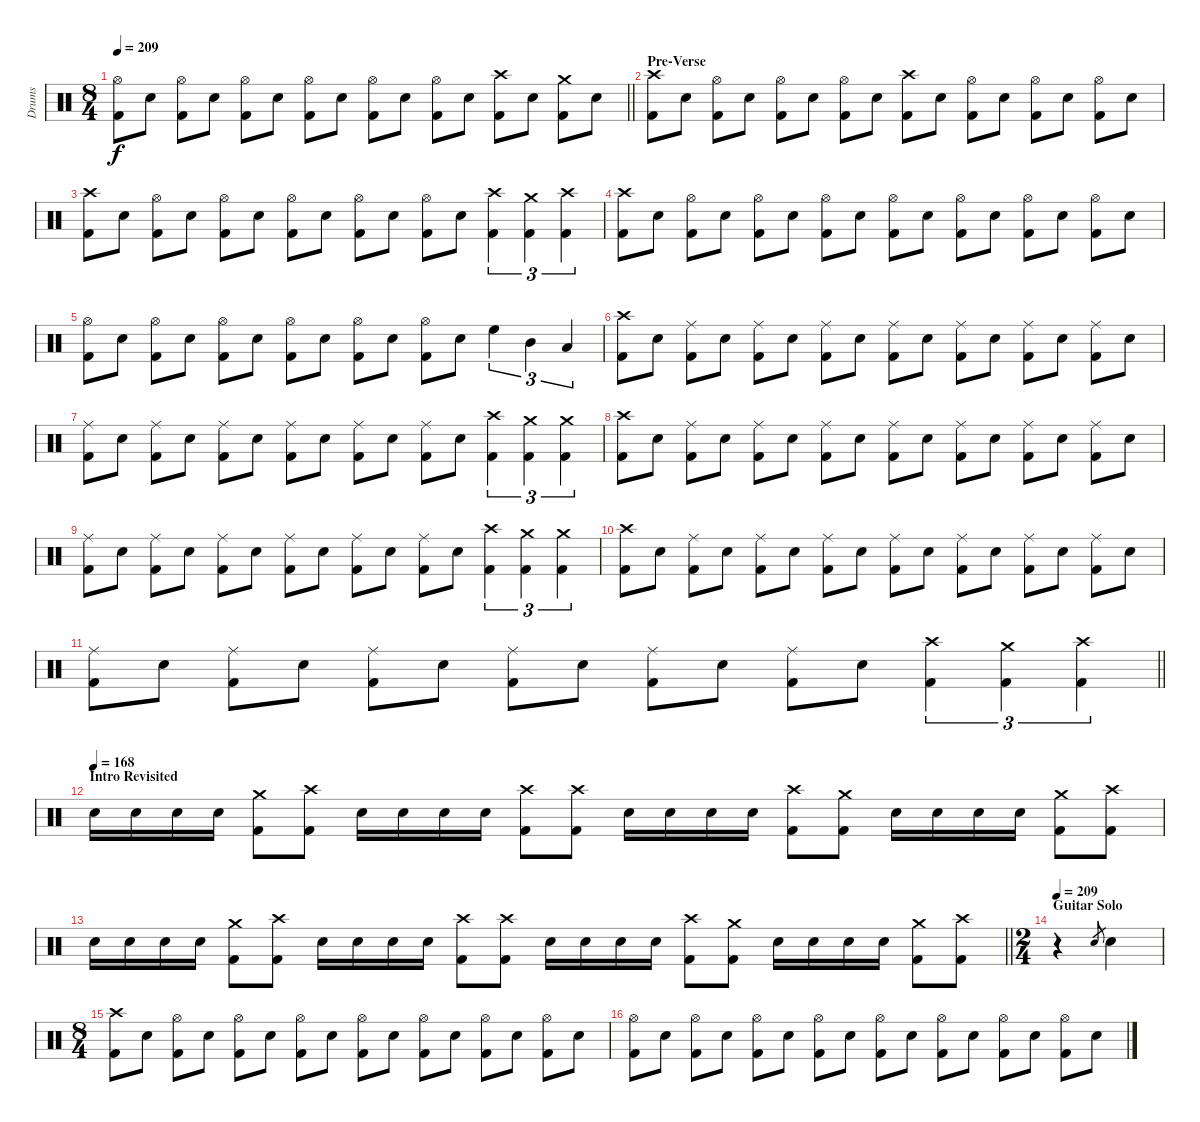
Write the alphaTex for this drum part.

\track ("Drums" "Drums") {instrument percussion}
\staff {score}
\articulation defaults
\ts (8 4)
\tempo 209
\clef neutral
\barLineRight lightlight
\ks c
("Hi-Hat (open)" "Kick (hit) 2").8{dy f} "Snare (hit) 2".8 ("Hi-Hat (open)" "Kick (hit) 2").8 "Snare (hit) 2".8 ("Hi-Hat (open)" "Kick (hit) 2").8 "Snare (hit) 2".8 ("Hi-Hat (open)" "Kick (hit) 2").8 "Snare (hit) 2".8 ("Hi-Hat (open)" "Kick (hit) 2").8 "Snare (hit) 2".8 ("Hi-Hat (open)" "Kick (hit) 2").8 "Snare (hit) 2".8 ("Crash high (hit)" "Kick (hit) 2").8 "Snare (hit) 2".8 ("Crash medium (hit)" "Kick (hit) 2").8 "Snare (hit) 2".8 |
\section ("" "Pre-Verse")
("Crash high (hit)" "Kick (hit) 2").8 "Snare (hit) 2".8 ("Hi-Hat (open)" "Kick (hit) 2").8 "Snare (hit) 2".8 ("Hi-Hat (open)" "Kick (hit) 2").8 "Snare (hit) 2".8 ("Hi-Hat (open)" "Kick (hit) 2").8 "Snare (hit) 2".8 ("Crash high (hit)" "Kick (hit) 2").8 "Snare (hit) 2".8 ("Hi-Hat (open)" "Kick (hit) 2").8 "Snare (hit) 2".8 ("Hi-Hat (open)" "Kick (hit) 2").8 "Snare (hit) 2".8 ("Hi-Hat (open)" "Kick (hit) 2").8 "Snare (hit) 2".8 |
("Crash high (hit)" "Kick (hit) 2").8 "Snare (hit) 2".8 ("Hi-Hat (open)" "Kick (hit) 2").8 "Snare (hit) 2".8 ("Hi-Hat (open)" "Kick (hit) 2").8 "Snare (hit) 2".8 ("Hi-Hat (open)" "Kick (hit) 2").8 "Snare (hit) 2".8 ("Hi-Hat (open)" "Kick (hit) 2").8 "Snare (hit) 2".8 ("Hi-Hat (open)" "Kick (hit) 2").8 "Snare (hit) 2".8 ("Crash high (hit)" "Kick (hit) 2").4{tu (3 2)} ("Crash medium (hit)" "Kick (hit) 2").4{tu (3 2)} ("Crash high (hit)" "Kick (hit) 2").4{tu (3 2)} |
("Crash high (hit)" "Kick (hit) 2").8 "Snare (hit) 2".8 ("Hi-Hat (open)" "Kick (hit) 2").8 "Snare (hit) 2".8 ("Hi-Hat (open)" "Kick (hit) 2").8 "Snare (hit) 2".8 ("Hi-Hat (open)" "Kick (hit) 2").8 "Snare (hit) 2".8 ("Hi-Hat (open)" "Kick (hit) 2").8 "Snare (hit) 2".8 ("Hi-Hat (open)" "Kick (hit) 2").8 "Snare (hit) 2".8 ("Hi-Hat (open)" "Kick (hit) 2").8 "Snare (hit) 2".8 ("Hi-Hat (open)" "Kick (hit) 2").8 "Snare (hit) 2".8 |
("Hi-Hat (open)" "Kick (hit) 2").8 "Snare (hit) 2".8 ("Hi-Hat (open)" "Kick (hit) 2").8 "Snare (hit) 2".8 ("Hi-Hat (open)" "Kick (hit) 2").8 "Snare (hit) 2".8 ("Hi-Hat (open)" "Kick (hit) 2").8 "Snare (hit) 2".8 ("Hi-Hat (open)" "Kick (hit) 2").8 "Snare (hit) 2".8 ("Hi-Hat (open)" "Kick (hit) 2").8 "Snare (hit) 2".8 "High Floor Tom (hit)".4{tu (3 2)} "Mid Tom (hit)".4{tu (3 2)} "Low Tom (hit)".4{tu (3 2)} |
("Crash high (hit)" "Kick (hit) 2").8 "Snare (hit) 2".8 ("Ride (middle)" "Kick (hit) 2").8 "Snare (hit) 2".8 ("Ride (middle)" "Kick (hit) 2").8 "Snare (hit) 2".8 ("Ride (middle)" "Kick (hit) 2").8 "Snare (hit) 2".8 ("Ride (middle)" "Kick (hit) 2").8 "Snare (hit) 2".8 ("Ride (middle)" "Kick (hit) 2").8 "Snare (hit) 2".8 ("Ride (middle)" "Kick (hit) 2").8 "Snare (hit) 2".8 ("Ride (middle)" "Kick (hit) 2").8 "Snare (hit) 2".8 |
("Ride (middle)" "Kick (hit) 2").8 "Snare (hit) 2".8 ("Ride (middle)" "Kick (hit) 2").8 "Snare (hit) 2".8 ("Ride (middle)" "Kick (hit) 2").8 "Snare (hit) 2".8 ("Ride (middle)" "Kick (hit) 2").8 "Snare (hit) 2".8 ("Ride (middle)" "Kick (hit) 2").8 "Snare (hit) 2".8 ("Ride (middle)" "Kick (hit) 2").8 "Snare (hit) 2".8 ("Crash high (hit)" "Kick (hit) 2").4{tu (3 2)} ("Crash medium (hit)" "Kick (hit) 2").4{tu (3 2)} ("Crash medium (hit)" "Kick (hit) 2").4{tu (3 2)} |
("Crash high (hit)" "Kick (hit) 2").8 "Snare (hit) 2".8 ("Ride (middle)" "Kick (hit) 2").8 "Snare (hit) 2".8 ("Ride (middle)" "Kick (hit) 2").8 "Snare (hit) 2".8 ("Ride (middle)" "Kick (hit) 2").8 "Snare (hit) 2".8 ("Ride (middle)" "Kick (hit) 2").8 "Snare (hit) 2".8 ("Ride (middle)" "Kick (hit) 2").8 "Snare (hit) 2".8 ("Ride (middle)" "Kick (hit) 2").8 "Snare (hit) 2".8 ("Ride (middle)" "Kick (hit) 2").8 "Snare (hit) 2".8 |
("Ride (middle)" "Kick (hit) 2").8 "Snare (hit) 2".8 ("Ride (middle)" "Kick (hit) 2").8 "Snare (hit) 2".8 ("Ride (middle)" "Kick (hit) 2").8 "Snare (hit) 2".8 ("Ride (middle)" "Kick (hit) 2").8 "Snare (hit) 2".8 ("Ride (middle)" "Kick (hit) 2").8 "Snare (hit) 2".8 ("Ride (middle)" "Kick (hit) 2").8 "Snare (hit) 2".8 ("Crash high (hit)" "Kick (hit) 2").4{tu (3 2)} ("Crash medium (hit)" "Kick (hit) 2").4{tu (3 2)} ("Crash medium (hit)" "Kick (hit) 2").4{tu (3 2)} |
("Crash high (hit)" "Kick (hit) 2").8 "Snare (hit) 2".8 ("Ride (middle)" "Kick (hit) 2").8 "Snare (hit) 2".8 ("Ride (middle)" "Kick (hit) 2").8 "Snare (hit) 2".8 ("Ride (middle)" "Kick (hit) 2").8 "Snare (hit) 2".8 ("Ride (middle)" "Kick (hit) 2").8 "Snare (hit) 2".8 ("Ride (middle)" "Kick (hit) 2").8 "Snare (hit) 2".8 ("Ride (middle)" "Kick (hit) 2").8 "Snare (hit) 2".8 ("Ride (middle)" "Kick (hit) 2").8 "Snare (hit) 2".8 |
\barLineRight lightlight
("Ride (middle)" "Kick (hit) 2").8 "Snare (hit) 2".8 ("Ride (middle)" "Kick (hit) 2").8 "Snare (hit) 2".8 ("Ride (middle)" "Kick (hit) 2").8 "Snare (hit) 2".8 ("Ride (middle)" "Kick (hit) 2").8 "Snare (hit) 2".8 ("Ride (middle)" "Kick (hit) 2").8 "Snare (hit) 2".8 ("Ride (middle)" "Kick (hit) 2").8 "Snare (hit) 2".8 ("Crash high (hit)" "Kick (hit) 2").4{tu (3 2)} ("Crash medium (hit)" "Kick (hit) 2").4{tu (3 2)} ("Crash high (hit)" "Kick (hit) 2").4{tu (3 2)} |
\section ("" "Intro Revisited")
\tempo (168)
"Snare (hit) 2".16 "Snare (hit) 2".16 "Snare (hit) 2".16 "Snare (hit) 2".16 ("Crash medium (hit)" "Kick (hit) 2").8 ("Crash high (hit)" "Kick (hit) 2").8 "Snare (hit) 2".16 "Snare (hit) 2".16 "Snare (hit) 2".16 "Snare (hit) 2".16 ("Crash high (hit)" "Kick (hit) 2").8 ("Crash high (hit)" "Kick (hit) 2").8 "Snare (hit) 2".16 "Snare (hit) 2".16 "Snare (hit) 2".16 "Snare (hit) 2".16 ("Crash high (hit)" "Kick (hit) 2").8 ("Crash medium (hit)" "Kick (hit) 2").8 "Snare (hit) 2".16 "Snare (hit) 2".16 "Snare (hit) 2".16 "Snare (hit) 2".16 ("Crash medium (hit)" "Kick (hit) 2").8 ("Crash high (hit)" "Kick (hit) 2").8 |
\barLineRight lightlight "Snare (hit) 2".16 "Snare (hit) 2".16 "Snare (hit) 2".16 "Snare (hit) 2".16
("Crash medium (hit)" "Kick (hit) 2").8 ("Crash high (hit)" "Kick (hit) 2").8 "Snare (hit) 2".16 "Snare (hit) 2".16 "Snare (hit) 2".16 "Snare (hit) 2".16 ("Crash high (hit)" "Kick (hit) 2").8 ("Crash high (hit)" "Kick (hit) 2").8 "Snare (hit) 2".16 "Snare (hit) 2".16 "Snare (hit) 2".16 "Snare (hit) 2".16 ("Crash high (hit)" "Kick (hit) 2").8 ("Crash medium (hit)" "Kick (hit) 2").8 "Snare (hit) 2".16 "Snare (hit) 2".16 "Snare (hit) 2".16 "Snare (hit) 2".16 ("Crash medium (hit)" "Kick (hit) 2").8 ("Crash high (hit)" "Kick (hit) 2").8 |
\ts (2 4)
\section ("" "Guitar Solo")
\tempo 209
r.4 "Snare (hit) 2".8{gr} "Snare (hit) 2".4 |
\ts (8 4)
("Crash high (hit)" "Kick (hit) 2").8 "Snare (hit) 2".8 ("Hi-Hat (open)" "Kick (hit) 2").8 "Snare (hit) 2".8 ("Hi-Hat (open)" "Kick (hit) 2").8 "Snare (hit) 2".8 ("Hi-Hat (open)" "Kick (hit) 2").8 "Snare (hit) 2".8 ("Hi-Hat (open)" "Kick (hit) 2").8 "Snare (hit) 2".8 ("Hi-Hat (open)" "Kick (hit) 2").8 "Snare (hit) 2".8 ("Hi-Hat (open)" "Kick (hit) 2").8 "Snare (hit) 2".8 ("Hi-Hat (open)" "Kick (hit) 2").8 "Snare (hit) 2".8 |
("Hi-Hat (open)" "Kick (hit) 2").8 "Snare (hit) 2".8 ("Hi-Hat (open)" "Kick (hit) 2").8 "Snare (hit) 2".8 ("Hi-Hat (open)" "Kick (hit) 2").8 "Snare (hit) 2".8 ("Hi-Hat (open)" "Kick (hit) 2").8 "Snare (hit) 2".8 ("Hi-Hat (open)" "Kick (hit) 2").8 "Snare (hit) 2".8 ("Hi-Hat (open)" "Kick (hit) 2").8 "Snare (hit) 2".8 ("Hi-Hat (open)" "Kick (hit) 2").8 "Snare (hit) 2".8 ("Hi-Hat (open)" "Kick (hit) 2").8 "Snare (hit) 2".8
